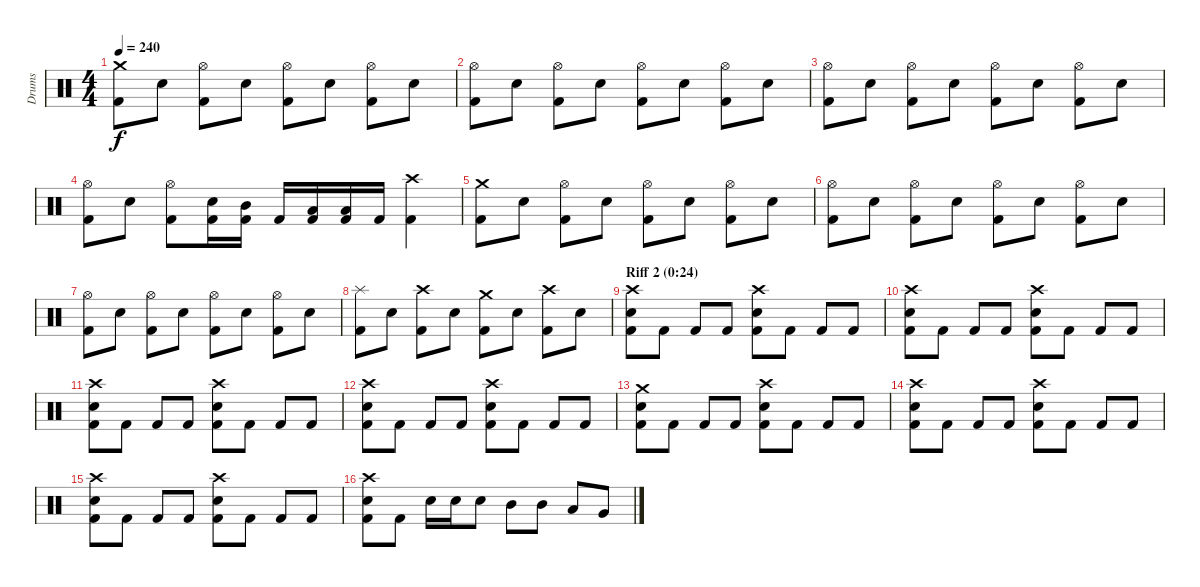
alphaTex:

\track ("Drums" "Drums") {instrument percussion}
\staff {score}
\articulation defaults
\ts (4 4)
\tempo 240
\clef neutral
\ks c
("Crash medium (hit)" "Kick (hit) 2").8{dy f} "Electric Snare (hit)".8 ("Hi-Hat (open)" "Kick (hit) 2").8 "Electric Snare (hit)".8 ("Hi-Hat (open)" "Kick (hit) 2").8 "Electric Snare (hit)".8 ("Hi-Hat (open)" "Kick (hit) 2").8 "Electric Snare (hit)".8 |
("Hi-Hat (open)" "Kick (hit) 2").8 "Electric Snare (hit)".8 ("Hi-Hat (open)" "Kick (hit) 2").8 "Electric Snare (hit)".8 ("Hi-Hat (open)" "Kick (hit) 2").8 "Electric Snare (hit)".8 ("Hi-Hat (open)" "Kick (hit) 2").8 "Electric Snare (hit)".8 |
("Hi-Hat (open)" "Kick (hit) 2").8 "Electric Snare (hit)".8 ("Hi-Hat (open)" "Kick (hit) 2").8 "Electric Snare (hit)".8 ("Hi-Hat (open)" "Kick (hit) 2").8 "Electric Snare (hit)".8 ("Hi-Hat (open)" "Kick (hit) 2").8 "Electric Snare (hit)".8 |
("Hi-Hat (open)" "Kick (hit) 2").8 "Electric Snare (hit)".8 ("Hi-Hat (open)" "Kick (hit) 2").8 ("Electric Snare (hit)" "Kick (hit) 2").16 ("Mid Tom (hit)" "Kick (hit) 2").16 "Kick (hit) 2".16 ("Low Tom (hit)" "Kick (hit) 2").16 ("Low Tom (hit)" "Kick (hit) 2").16 "Kick (hit) 2".16 ("Crash high (hit)" "Kick (hit) 2").4 |
("Crash medium (hit)" "Kick (hit) 2").8 "Electric Snare (hit)".8 ("Hi-Hat (open)" "Kick (hit) 2").8 "Electric Snare (hit)".8 ("Hi-Hat (open)" "Kick (hit) 2").8 "Electric Snare (hit)".8 ("Hi-Hat (open)" "Kick (hit) 2").8 "Electric Snare (hit)".8 |
("Hi-Hat (open)" "Kick (hit) 2").8 "Electric Snare (hit)".8 ("Hi-Hat (open)" "Kick (hit) 2").8 "Electric Snare (hit)".8 ("Hi-Hat (open)" "Kick (hit) 2").8 "Electric Snare (hit)".8 ("Hi-Hat (open)" "Kick (hit) 2").8 "Electric Snare (hit)".8 |
("Hi-Hat (open)" "Kick (hit) 2").8 "Electric Snare (hit)".8 ("Hi-Hat (open)" "Kick (hit) 2").8 "Electric Snare (hit)".8 ("Hi-Hat (open)" "Kick (hit) 2").8 "Electric Snare (hit)".8 ("Hi-Hat (open)" "Kick (hit) 2").8 "Electric Snare (hit)".8 |
("Splash (hit)" "Kick (hit) 2").8 "Electric Snare (hit)".8 ("Crash high (hit)" "Kick (hit) 2").8 "Electric Snare (hit)".8 ("Crash medium (hit)" "Kick (hit) 2").8 "Electric Snare (hit)".8 ("Crash high (hit)" "Kick (hit) 2").8 "Electric Snare (hit)".8 |
\section ("" "Riff 2 (0:24)")
("Crash high (hit)" "Electric Snare (hit)" "Kick (hit) 2").8 "Kick (hit) 2".8 "Kick (hit) 2".8 "Kick (hit) 2".8 ("Crash high (hit)" "Electric Snare (hit)" "Kick (hit) 2").8 "Kick (hit) 2".8 "Kick (hit) 2".8 "Kick (hit) 2".8 |
("Crash high (hit)" "Electric Snare (hit)" "Kick (hit) 2").8 "Kick (hit) 2".8 "Kick (hit) 2".8 "Kick (hit) 2".8 ("Crash high (hit)" "Electric Snare (hit)" "Kick (hit) 2").8 "Kick (hit) 2".8 "Kick (hit) 2".8 "Kick (hit) 2".8 |
("Crash high (hit)" "Electric Snare (hit)" "Kick (hit) 2").8 "Kick (hit) 2".8 "Kick (hit) 2".8 "Kick (hit) 2".8 ("Crash high (hit)" "Electric Snare (hit)" "Kick (hit) 2").8 "Kick (hit) 2".8 "Kick (hit) 2".8 "Kick (hit) 2".8 |
("Crash high (hit)" "Electric Snare (hit)" "Kick (hit) 2").8 "Kick (hit) 2".8 "Kick (hit) 2".8 "Kick (hit) 2".8 ("Crash high (hit)" "Electric Snare (hit)" "Kick (hit) 2").8 "Kick (hit) 2".8 "Kick (hit) 2".8 "Kick (hit) 2".8 |
("Crash medium (hit)" "Electric Snare (hit)" "Kick (hit) 2").8 "Kick (hit) 2".8 "Kick (hit) 2".8 "Kick (hit) 2".8 ("Crash high (hit)" "Electric Snare (hit)" "Kick (hit) 2").8 "Kick (hit) 2".8 "Kick (hit) 2".8 "Kick (hit) 2".8 |
("Crash high (hit)" "Electric Snare (hit)" "Kick (hit) 2").8 "Kick (hit) 2".8 "Kick (hit) 2".8 "Kick (hit) 2".8 ("Crash high (hit)" "Electric Snare (hit)" "Kick (hit) 2").8 "Kick (hit) 2".8 "Kick (hit) 2".8 "Kick (hit) 2".8 |
("Crash high (hit)" "Electric Snare (hit)" "Kick (hit) 2").8 "Kick (hit) 2".8 "Kick (hit) 2".8 "Kick (hit) 2".8 ("Crash high (hit)" "Electric Snare (hit)" "Kick (hit) 2").8 "Kick (hit) 2".8 "Kick (hit) 2".8 "Kick (hit) 2".8 |
("Crash high (hit)" "Electric Snare (hit)" "Kick (hit) 2").8 "Kick (hit) 2".8 "Electric Snare (hit)".16 "Electric Snare (hit)".16 "Electric Snare (hit)".8 "Mid Tom (hit)".8 "Mid Tom (hit)".8 "Low Tom (hit)".8 "Very Low Tom (hit)".8
